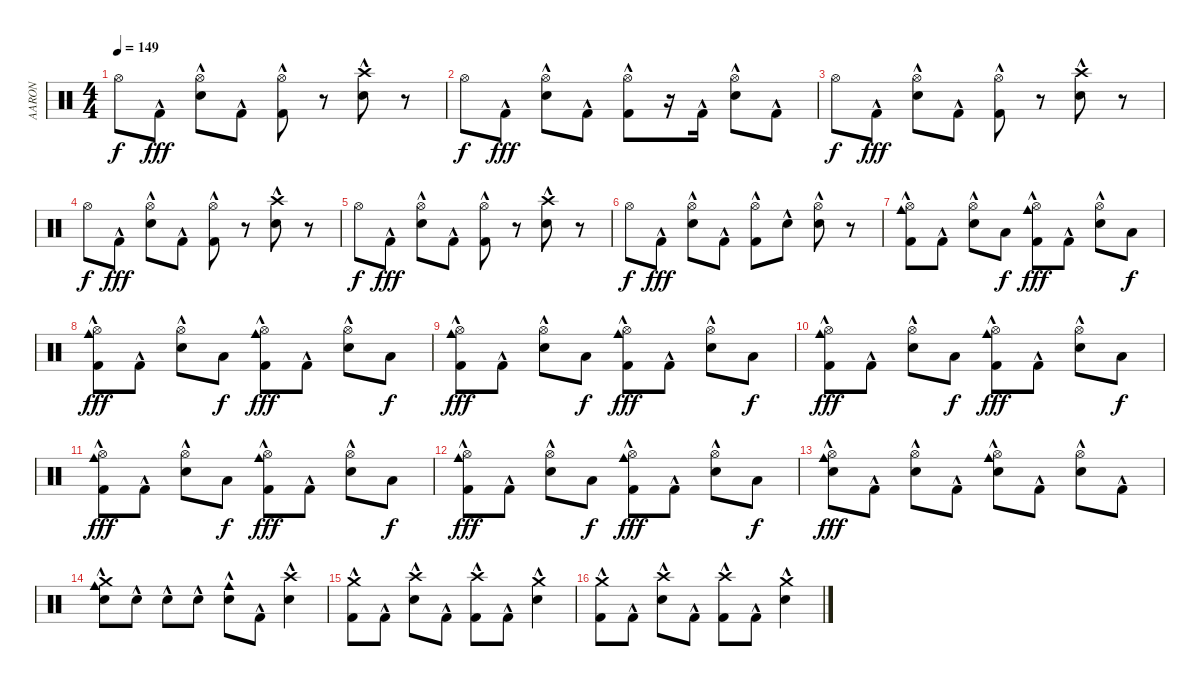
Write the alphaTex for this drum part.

\track ("AARON" "AARON") {instrument percussion}
\staff {score}
\articulation defaults
\ts (4 4)
\tempo 149
\clef neutral
\ks c "Hi-Hat (open)".8{dy f} "Kick (hit) 2"{hac}.8{dy fff}
("Hi-Hat (open)" "Snare (hit) 2"{hac}).8 "Kick (hit) 2"{hac}.8 ("Hi-Hat (open)" "Kick (hit) 2"{hac}).8 r.8 ("Crash high (hit)" "Snare (hit) 2"{hac}).8 r.8 |
"Hi-Hat (open)".8{dy f} "Kick (hit) 2"{hac}.8{dy fff} ("Hi-Hat (open)" "Snare (hit) 2"{hac}).8 "Kick (hit) 2"{hac}.8 ("Hi-Hat (open)" "Kick (hit) 2"{hac}).8 r.16 "Kick (hit) 2"{hac}.16 ("Hi-Hat (open)" "Snare (hit) 2"{hac}).8 "Kick (hit) 2"{hac}.8 |
"Hi-Hat (open)".8{dy f} "Kick (hit) 2"{hac}.8{dy fff} ("Hi-Hat (open)" "Snare (hit) 2"{hac}).8 "Kick (hit) 2"{hac}.8 ("Hi-Hat (open)" "Kick (hit) 2"{hac}).8 r.8 ("Crash high (hit)" "Snare (hit) 2"{hac}).8 r.8 |
"Hi-Hat (open)".8{dy f} "Kick (hit) 2"{hac}.8{dy fff} ("Hi-Hat (open)" "Snare (hit) 2"{hac}).8 "Kick (hit) 2"{hac}.8 ("Hi-Hat (open)" "Kick (hit) 2"{hac}).8 r.8 ("Crash high (hit)" "Snare (hit) 2"{hac}).8 r.8 |
"Hi-Hat (open)".8{dy f} "Kick (hit) 2"{hac}.8{dy fff} ("Hi-Hat (open)" "Snare (hit) 2"{hac}).8 "Kick (hit) 2"{hac}.8 ("Hi-Hat (open)" "Kick (hit) 2"{hac}).8 r.8 ("Crash high (hit)" "Snare (hit) 2"{hac}).8 r.8 |
"Hi-Hat (open)".8{dy f} "Kick (hit) 2"{hac}.8{dy fff} ("Hi-Hat (open)" "Snare (hit) 2"{hac}).8 "Kick (hit) 2"{hac}.8 ("Hi-Hat (open)" "Kick (hit) 2"{hac}).8 "Snare (hit) 2"{hac}.8 ("Hi-Hat (open)" "Snare (hit) 2"{hac}).8 r.8 |
("Hi-Hat (open)" "Cowbell medium (hit)" "Kick (hit) 2"{hac}).8 "Kick (hit) 2"{hac}.8 ("Hi-Hat (open)" "Snare (hit) 2"{hac}).8 "Low Tom (hit)".8{dy f} ("Hi-Hat (open)" "Cowbell medium (hit)" "Kick (hit) 2"{hac}).8{dy fff} "Kick (hit) 2"{hac}.8 ("Hi-Hat (open)" "Snare (hit) 2"{hac}).8 "Low Tom (hit)".8{dy f} |
("Hi-Hat (open)" "Cowbell medium (hit)" "Kick (hit) 2"{hac}).8{dy fff} "Kick (hit) 2"{hac}.8 ("Hi-Hat (open)" "Snare (hit) 2"{hac}).8 "Low Tom (hit)".8{dy f} ("Hi-Hat (open)" "Cowbell medium (hit)" "Kick (hit) 2"{hac}).8{dy fff} "Kick (hit) 2"{hac}.8 ("Hi-Hat (open)" "Snare (hit) 2"{hac}).8 "Low Tom (hit)".8{dy f} |
("Hi-Hat (open)" "Cowbell medium (hit)" "Kick (hit) 2"{hac}).8{dy fff} "Kick (hit) 2"{hac}.8 ("Hi-Hat (open)" "Snare (hit) 2"{hac}).8 "Low Tom (hit)".8{dy f} ("Hi-Hat (open)" "Cowbell medium (hit)" "Kick (hit) 2"{hac}).8{dy fff} "Kick (hit) 2"{hac}.8 ("Hi-Hat (open)" "Snare (hit) 2"{hac}).8 "Low Tom (hit)".8{dy f} |
("Hi-Hat (open)" "Cowbell medium (hit)" "Kick (hit) 2"{hac}).8{dy fff} "Kick (hit) 2"{hac}.8 ("Hi-Hat (open)" "Snare (hit) 2"{hac}).8 "Low Tom (hit)".8{dy f} ("Hi-Hat (open)" "Cowbell medium (hit)" "Kick (hit) 2"{hac}).8{dy fff} "Kick (hit) 2"{hac}.8 ("Hi-Hat (open)" "Snare (hit) 2"{hac}).8 "Low Tom (hit)".8{dy f} |
("Hi-Hat (open)" "Cowbell medium (hit)" "Kick (hit) 2"{hac}).8{dy fff} "Kick (hit) 2"{hac}.8 ("Hi-Hat (open)" "Snare (hit) 2"{hac}).8 "Low Tom (hit)".8{dy f} ("Hi-Hat (open)" "Cowbell medium (hit)" "Kick (hit) 2"{hac}).8{dy fff} "Kick (hit) 2"{hac}.8 ("Hi-Hat (open)" "Snare (hit) 2"{hac}).8 "Low Tom (hit)".8{dy f} |
("Hi-Hat (open)" "Cowbell medium (hit)" "Kick (hit) 2"{hac}).8{dy fff} "Kick (hit) 2"{hac}.8 ("Hi-Hat (open)" "Snare (hit) 2"{hac}).8 "Low Tom (hit)".8{dy f} ("Hi-Hat (open)" "Cowbell medium (hit)" "Kick (hit) 2"{hac}).8{dy fff} "Kick (hit) 2"{hac}.8 ("Hi-Hat (open)" "Snare (hit) 2"{hac}).8 "Low Tom (hit)".8{dy f} |
("Hi-Hat (open)" "Cowbell medium (hit)" "Snare (hit) 2"{hac}).8{dy fff} "Kick (hit) 2"{hac}.8 ("Hi-Hat (open)" "Snare (hit) 2"{hac}).8 "Kick (hit) 2"{hac}.8 ("Hi-Hat (open)" "Cowbell medium (hit)" "Snare (hit) 2"{hac}).8 "Kick (hit) 2"{hac}.8 ("Hi-Hat (open)" "Snare (hit) 2"{hac}).8 "Kick (hit) 2"{hac}.8 |
("Crash medium (hit)" "Cowbell medium (hit)" "Snare (hit) 2"{hac}).8 "Snare (hit) 2"{hac}.8 "Snare (hit) 2"{hac}.8 "Snare (hit) 2"{hac}.8 ("Cowbell medium (hit)" "Snare (hit) 2"{hac}).8 "Kick (hit) 2"{hac}.8 ("Crash high (hit)" "Snare (hit) 2"{hac}).4 |
("Crash medium (hit)" "Kick (hit) 2"{hac}).8 "Kick (hit) 2"{hac}.8 ("Crash high (hit)" "Snare (hit) 2"{hac}).8 "Kick (hit) 2"{hac}.8 ("Crash high (hit)" "Kick (hit) 2"{hac}).8 "Kick (hit) 2"{hac}.8 ("Crash medium (hit)" "Snare (hit) 2"{hac}).4 |
("Crash medium (hit)" "Kick (hit) 2"{hac}).8 "Kick (hit) 2"{hac}.8 ("Crash high (hit)" "Snare (hit) 2"{hac}).8 "Kick (hit) 2"{hac}.8 ("Crash high (hit)" "Kick (hit) 2"{hac}).8 "Kick (hit) 2"{hac}.8 ("Crash medium (hit)" "Snare (hit) 2"{hac}).4
